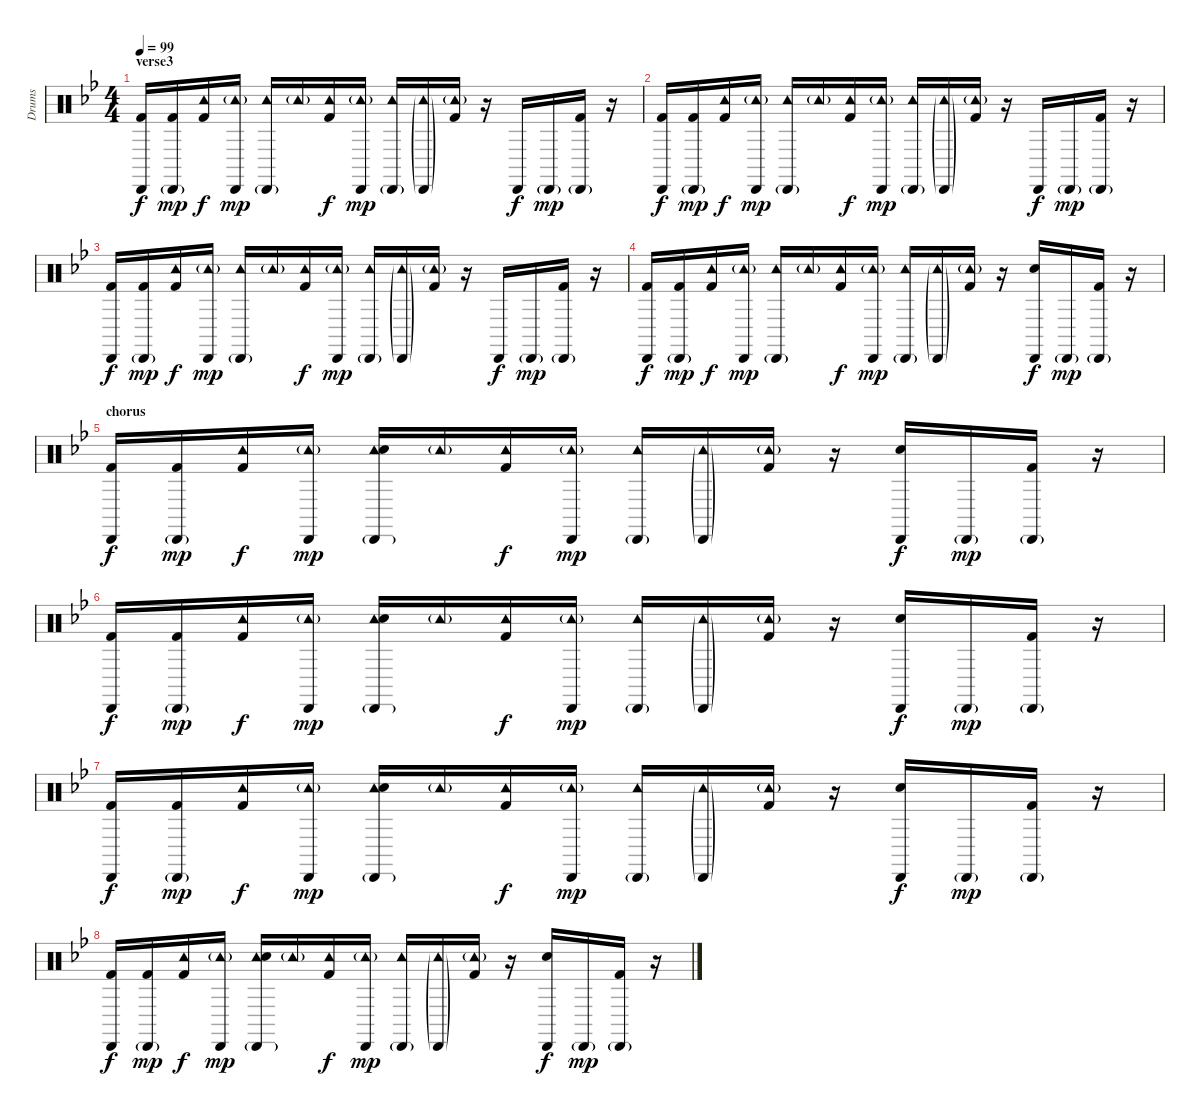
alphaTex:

\track ("Drums" "Drums") {instrument percussion}
\staff {score}
\articulation defaults
\ts (4 4)
\section ("" "verse3")
\tempo 99
\clef neutral
\ks bb
("Cabasa (hit)" "Kick (hit) 2").16{dy f} ("Cabasa (hit)"{g} "Kick (hit) 2").16{dy mp} ("Tambourine (hit)" "Kick (hit) 2").16{dy f} ("Cabasa (hit)" "Tambourine (hit)"{g}).16{dy mp} ("Cabasa (hit)"{g} "Tambourine (hit)").16 "Tambourine (hit)"{g}.16 ("Tambourine (hit)" "Kick (hit) 2").16{dy f} ("Cabasa (hit)" "Tambourine (hit)"{g}).16{dy mp} ("Cabasa (hit)"{g} "Tambourine (hit)").16 ("Cabasa (hit)"{g} "Tambourine (hit)"{g}).16 ("Tambourine (hit)"{g} "Kick (hit) 2").16 r.16 "Cabasa (hit)".16{dy f} "Cabasa (hit)"{g}.16{dy mp} ("Cabasa (hit)"{g} "Kick (hit) 2").16 r.16 |
("Cabasa (hit)" "Kick (hit) 2").16{dy f} ("Cabasa (hit)"{g} "Kick (hit) 2").16{dy mp} ("Tambourine (hit)" "Kick (hit) 2").16{dy f} ("Cabasa (hit)" "Tambourine (hit)"{g}).16{dy mp} ("Cabasa (hit)"{g} "Tambourine (hit)").16 "Tambourine (hit)"{g}.16 ("Tambourine (hit)" "Kick (hit) 2").16{dy f} ("Cabasa (hit)" "Tambourine (hit)"{g}).16{dy mp} ("Cabasa (hit)"{g} "Tambourine (hit)").16 ("Cabasa (hit)"{g} "Tambourine (hit)"{g}).16 ("Tambourine (hit)"{g} "Kick (hit) 2").16 r.16 "Cabasa (hit)".16{dy f} "Cabasa (hit)"{g}.16{dy mp} ("Cabasa (hit)"{g} "Kick (hit) 2").16 r.16 |
("Cabasa (hit)" "Kick (hit) 2").16{dy f} ("Cabasa (hit)"{g} "Kick (hit) 2").16{dy mp} ("Tambourine (hit)" "Kick (hit) 2").16{dy f} ("Cabasa (hit)" "Tambourine (hit)"{g}).16{dy mp} ("Cabasa (hit)"{g} "Tambourine (hit)").16 "Tambourine (hit)"{g}.16 ("Tambourine (hit)" "Kick (hit) 2").16{dy f} ("Cabasa (hit)" "Tambourine (hit)"{g}).16{dy mp} ("Cabasa (hit)"{g} "Tambourine (hit)").16 ("Cabasa (hit)"{g} "Tambourine (hit)"{g}).16 ("Tambourine (hit)"{g} "Kick (hit) 2").16 r.16 "Cabasa (hit)".16{dy f} "Cabasa (hit)"{g}.16{dy mp} ("Cabasa (hit)"{g} "Kick (hit) 2").16 r.16 |
("Cabasa (hit)" "Kick (hit) 2").16{dy f} ("Cabasa (hit)"{g} "Kick (hit) 2").16{dy mp} ("Tambourine (hit)" "Kick (hit) 2").16{dy f} ("Cabasa (hit)" "Tambourine (hit)"{g}).16{dy mp} ("Cabasa (hit)"{g} "Tambourine (hit)").16 "Tambourine (hit)"{g}.16 ("Tambourine (hit)" "Kick (hit) 2").16{dy f} ("Cabasa (hit)" "Tambourine (hit)"{g}).16{dy mp} ("Cabasa (hit)"{g} "Tambourine (hit)").16 ("Cabasa (hit)"{g} "Tambourine (hit)"{g}).16 ("Tambourine (hit)"{g} "Kick (hit) 2").16 r.16 ("Cabasa (hit)" "Snare (hit) 2").16{dy f} "Cabasa (hit)"{g}.16{dy mp} ("Cabasa (hit)"{g} "Kick (hit) 2").16 r.16 |
\section ("" "chorus")
("Cabasa (hit)" "Kick (hit) 2").16{dy f} ("Cabasa (hit)"{g} "Kick (hit) 2").16{dy mp} ("Tambourine (hit)" "Kick (hit) 2").16{dy f} ("Cabasa (hit)" "Tambourine (hit)"{g}).16{dy mp} ("Cabasa (hit)"{g} "Tambourine (hit)" "Snare (hit) 2").16 "Tambourine (hit)"{g}.16 ("Tambourine (hit)" "Kick (hit) 2").16{dy f} ("Cabasa (hit)" "Tambourine (hit)"{g}).16{dy mp} ("Cabasa (hit)"{g} "Tambourine (hit)").16 ("Cabasa (hit)"{g} "Tambourine (hit)"{g}).16 ("Tambourine (hit)"{g} "Kick (hit) 2").16 r.16 ("Cabasa (hit)" "Snare (hit) 2").16{dy f} "Cabasa (hit)"{g}.16{dy mp} ("Cabasa (hit)"{g} "Kick (hit) 2").16 r.16 |
("Cabasa (hit)" "Kick (hit) 2").16{dy f} ("Cabasa (hit)"{g} "Kick (hit) 2").16{dy mp} ("Tambourine (hit)" "Kick (hit) 2").16{dy f} ("Cabasa (hit)" "Tambourine (hit)"{g}).16{dy mp} ("Cabasa (hit)"{g} "Tambourine (hit)" "Snare (hit) 2").16 "Tambourine (hit)"{g}.16 ("Tambourine (hit)" "Kick (hit) 2").16{dy f} ("Cabasa (hit)" "Tambourine (hit)"{g}).16{dy mp} ("Cabasa (hit)"{g} "Tambourine (hit)").16 ("Cabasa (hit)"{g} "Tambourine (hit)"{g}).16 ("Tambourine (hit)"{g} "Kick (hit) 2").16 r.16 ("Cabasa (hit)" "Snare (hit) 2").16{dy f} "Cabasa (hit)"{g}.16{dy mp} ("Cabasa (hit)"{g} "Kick (hit) 2").16 r.16 |
("Cabasa (hit)" "Kick (hit) 2").16{dy f} ("Cabasa (hit)"{g} "Kick (hit) 2").16{dy mp} ("Tambourine (hit)" "Kick (hit) 2").16{dy f} ("Cabasa (hit)" "Tambourine (hit)"{g}).16{dy mp} ("Cabasa (hit)"{g} "Tambourine (hit)" "Snare (hit) 2").16 "Tambourine (hit)"{g}.16 ("Tambourine (hit)" "Kick (hit) 2").16{dy f} ("Cabasa (hit)" "Tambourine (hit)"{g}).16{dy mp} ("Cabasa (hit)"{g} "Tambourine (hit)").16 ("Cabasa (hit)"{g} "Tambourine (hit)"{g}).16 ("Tambourine (hit)"{g} "Kick (hit) 2").16 r.16 ("Cabasa (hit)" "Snare (hit) 2").16{dy f} "Cabasa (hit)"{g}.16{dy mp} ("Cabasa (hit)"{g} "Kick (hit) 2").16 r.16 |
("Cabasa (hit)" "Kick (hit) 2").16{dy f} ("Cabasa (hit)"{g} "Kick (hit) 2").16{dy mp} ("Tambourine (hit)" "Kick (hit) 2").16{dy f} ("Cabasa (hit)" "Tambourine (hit)"{g}).16{dy mp} ("Cabasa (hit)"{g} "Tambourine (hit)" "Snare (hit) 2").16 "Tambourine (hit)"{g}.16 ("Tambourine (hit)" "Kick (hit) 2").16{dy f} ("Cabasa (hit)" "Tambourine (hit)"{g}).16{dy mp} ("Cabasa (hit)"{g} "Tambourine (hit)").16 ("Cabasa (hit)"{g} "Tambourine (hit)"{g}).16 ("Tambourine (hit)"{g} "Kick (hit) 2").16 r.16 ("Cabasa (hit)" "Snare (hit) 2").16{dy f} "Cabasa (hit)"{g}.16{dy mp} ("Cabasa (hit)"{g} "Kick (hit) 2").16 r.16
